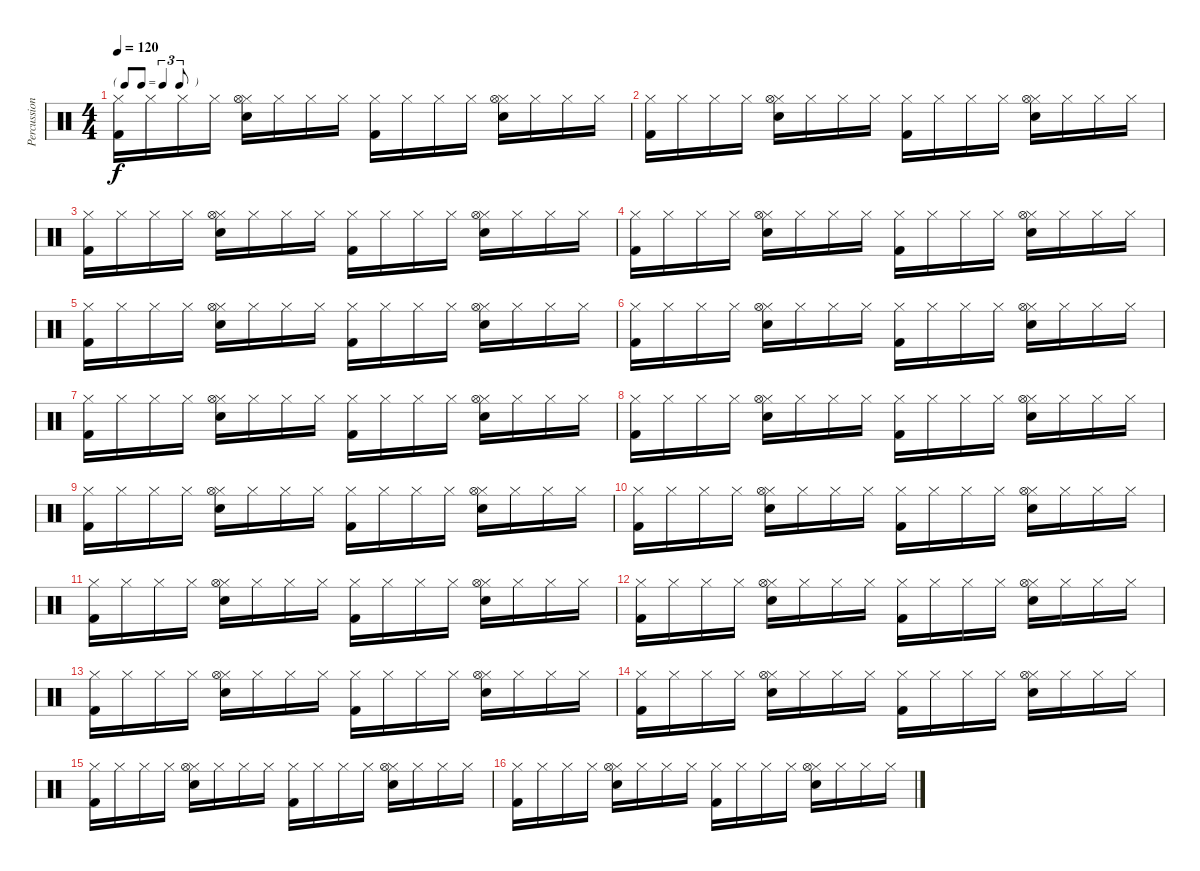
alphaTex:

\track ("Percussions" "Percussion") {instrument percussion}
\staff {score}
\articulation defaults
\ts (4 4)
\tf triplet8th
\tempo 120
\clef neutral
\ks c
("Hi-Hat (closed)" "Kick (hit) 2").16{dy f} "Hi-Hat (closed)".16 "Hi-Hat (closed)".16 "Hi-Hat (closed)".16 ("Snare (hit) 2" "Hi-Hat (closed)" "Hi-Hat (open)").16 "Hi-Hat (closed)".16 "Hi-Hat (closed)".16 "Hi-Hat (closed)".16 ("Hi-Hat (closed)" "Kick (hit) 2").16 "Hi-Hat (closed)".16 "Hi-Hat (closed)".16 "Hi-Hat (closed)".16 ("Snare (hit) 2" "Hi-Hat (closed)" "Hi-Hat (open)").16 "Hi-Hat (closed)".16 "Hi-Hat (closed)".16 "Hi-Hat (closed)".16 |
("Hi-Hat (closed)" "Kick (hit) 2").16 "Hi-Hat (closed)".16 "Hi-Hat (closed)".16 "Hi-Hat (closed)".16 ("Snare (hit) 2" "Hi-Hat (closed)" "Hi-Hat (open)").16 "Hi-Hat (closed)".16 "Hi-Hat (closed)".16 "Hi-Hat (closed)".16 ("Hi-Hat (closed)" "Kick (hit) 2").16 "Hi-Hat (closed)".16 "Hi-Hat (closed)".16 "Hi-Hat (closed)".16 ("Snare (hit) 2" "Hi-Hat (closed)" "Hi-Hat (open)").16 "Hi-Hat (closed)".16 "Hi-Hat (closed)".16 "Hi-Hat (closed)".16 |
("Hi-Hat (closed)" "Kick (hit) 2").16 "Hi-Hat (closed)".16 "Hi-Hat (closed)".16 "Hi-Hat (closed)".16 ("Snare (hit) 2" "Hi-Hat (closed)" "Hi-Hat (open)").16 "Hi-Hat (closed)".16 "Hi-Hat (closed)".16 "Hi-Hat (closed)".16 ("Hi-Hat (closed)" "Kick (hit) 2").16 "Hi-Hat (closed)".16 "Hi-Hat (closed)".16 "Hi-Hat (closed)".16 ("Snare (hit) 2" "Hi-Hat (closed)" "Hi-Hat (open)").16 "Hi-Hat (closed)".16 "Hi-Hat (closed)".16 "Hi-Hat (closed)".16 |
("Hi-Hat (closed)" "Kick (hit) 2").16 "Hi-Hat (closed)".16 "Hi-Hat (closed)".16 "Hi-Hat (closed)".16 ("Snare (hit) 2" "Hi-Hat (closed)" "Hi-Hat (open)").16 "Hi-Hat (closed)".16 "Hi-Hat (closed)".16 "Hi-Hat (closed)".16 ("Hi-Hat (closed)" "Kick (hit) 2").16 "Hi-Hat (closed)".16 "Hi-Hat (closed)".16 "Hi-Hat (closed)".16 ("Snare (hit) 2" "Hi-Hat (closed)" "Hi-Hat (open)").16 "Hi-Hat (closed)".16 "Hi-Hat (closed)".16 "Hi-Hat (closed)".16 |
("Hi-Hat (closed)" "Kick (hit) 2").16 "Hi-Hat (closed)".16 "Hi-Hat (closed)".16 "Hi-Hat (closed)".16 ("Snare (hit) 2" "Hi-Hat (closed)" "Hi-Hat (open)").16 "Hi-Hat (closed)".16 "Hi-Hat (closed)".16 "Hi-Hat (closed)".16 ("Hi-Hat (closed)" "Kick (hit) 2").16 "Hi-Hat (closed)".16 "Hi-Hat (closed)".16 "Hi-Hat (closed)".16 ("Snare (hit) 2" "Hi-Hat (closed)" "Hi-Hat (open)").16 "Hi-Hat (closed)".16 "Hi-Hat (closed)".16 "Hi-Hat (closed)".16 |
("Hi-Hat (closed)" "Kick (hit) 2").16 "Hi-Hat (closed)".16 "Hi-Hat (closed)".16 "Hi-Hat (closed)".16 ("Snare (hit) 2" "Hi-Hat (closed)" "Hi-Hat (open)").16 "Hi-Hat (closed)".16 "Hi-Hat (closed)".16 "Hi-Hat (closed)".16 ("Hi-Hat (closed)" "Kick (hit) 2").16 "Hi-Hat (closed)".16 "Hi-Hat (closed)".16 "Hi-Hat (closed)".16 ("Snare (hit) 2" "Hi-Hat (closed)" "Hi-Hat (open)").16 "Hi-Hat (closed)".16 "Hi-Hat (closed)".16 "Hi-Hat (closed)".16 |
("Hi-Hat (closed)" "Kick (hit) 2").16 "Hi-Hat (closed)".16 "Hi-Hat (closed)".16 "Hi-Hat (closed)".16 ("Snare (hit) 2" "Hi-Hat (closed)" "Hi-Hat (open)").16 "Hi-Hat (closed)".16 "Hi-Hat (closed)".16 "Hi-Hat (closed)".16 ("Hi-Hat (closed)" "Kick (hit) 2").16 "Hi-Hat (closed)".16 "Hi-Hat (closed)".16 "Hi-Hat (closed)".16 ("Snare (hit) 2" "Hi-Hat (closed)" "Hi-Hat (open)").16 "Hi-Hat (closed)".16 "Hi-Hat (closed)".16 "Hi-Hat (closed)".16 |
("Hi-Hat (closed)" "Kick (hit) 2").16 "Hi-Hat (closed)".16 "Hi-Hat (closed)".16 "Hi-Hat (closed)".16 ("Snare (hit) 2" "Hi-Hat (closed)" "Hi-Hat (open)").16 "Hi-Hat (closed)".16 "Hi-Hat (closed)".16 "Hi-Hat (closed)".16 ("Hi-Hat (closed)" "Kick (hit) 2").16 "Hi-Hat (closed)".16 "Hi-Hat (closed)".16 "Hi-Hat (closed)".16 ("Snare (hit) 2" "Hi-Hat (closed)" "Hi-Hat (open)").16 "Hi-Hat (closed)".16 "Hi-Hat (closed)".16 "Hi-Hat (closed)".16 |
("Hi-Hat (closed)" "Kick (hit) 2").16 "Hi-Hat (closed)".16 "Hi-Hat (closed)".16 "Hi-Hat (closed)".16 ("Snare (hit) 2" "Hi-Hat (closed)" "Hi-Hat (open)").16 "Hi-Hat (closed)".16 "Hi-Hat (closed)".16 "Hi-Hat (closed)".16 ("Hi-Hat (closed)" "Kick (hit) 2").16 "Hi-Hat (closed)".16 "Hi-Hat (closed)".16 "Hi-Hat (closed)".16 ("Snare (hit) 2" "Hi-Hat (closed)" "Hi-Hat (open)").16 "Hi-Hat (closed)".16 "Hi-Hat (closed)".16 "Hi-Hat (closed)".16 |
("Hi-Hat (closed)" "Kick (hit) 2").16 "Hi-Hat (closed)".16 "Hi-Hat (closed)".16 "Hi-Hat (closed)".16 ("Snare (hit) 2" "Hi-Hat (closed)" "Hi-Hat (open)").16 "Hi-Hat (closed)".16 "Hi-Hat (closed)".16 "Hi-Hat (closed)".16 ("Hi-Hat (closed)" "Kick (hit) 2").16 "Hi-Hat (closed)".16 "Hi-Hat (closed)".16 "Hi-Hat (closed)".16 ("Snare (hit) 2" "Hi-Hat (closed)" "Hi-Hat (open)").16 "Hi-Hat (closed)".16 "Hi-Hat (closed)".16 "Hi-Hat (closed)".16 |
("Hi-Hat (closed)" "Kick (hit) 2").16 "Hi-Hat (closed)".16 "Hi-Hat (closed)".16 "Hi-Hat (closed)".16 ("Snare (hit) 2" "Hi-Hat (closed)" "Hi-Hat (open)").16 "Hi-Hat (closed)".16 "Hi-Hat (closed)".16 "Hi-Hat (closed)".16 ("Hi-Hat (closed)" "Kick (hit) 2").16 "Hi-Hat (closed)".16 "Hi-Hat (closed)".16 "Hi-Hat (closed)".16 ("Snare (hit) 2" "Hi-Hat (closed)" "Hi-Hat (open)").16 "Hi-Hat (closed)".16 "Hi-Hat (closed)".16 "Hi-Hat (closed)".16 |
("Hi-Hat (closed)" "Kick (hit) 2").16 "Hi-Hat (closed)".16 "Hi-Hat (closed)".16 "Hi-Hat (closed)".16 ("Snare (hit) 2" "Hi-Hat (closed)" "Hi-Hat (open)").16 "Hi-Hat (closed)".16 "Hi-Hat (closed)".16 "Hi-Hat (closed)".16 ("Hi-Hat (closed)" "Kick (hit) 2").16 "Hi-Hat (closed)".16 "Hi-Hat (closed)".16 "Hi-Hat (closed)".16 ("Snare (hit) 2" "Hi-Hat (closed)" "Hi-Hat (open)").16 "Hi-Hat (closed)".16 "Hi-Hat (closed)".16 "Hi-Hat (closed)".16 |
("Hi-Hat (closed)" "Kick (hit) 2").16 "Hi-Hat (closed)".16 "Hi-Hat (closed)".16 "Hi-Hat (closed)".16 ("Snare (hit) 2" "Hi-Hat (closed)" "Hi-Hat (open)").16 "Hi-Hat (closed)".16 "Hi-Hat (closed)".16 "Hi-Hat (closed)".16 ("Hi-Hat (closed)" "Kick (hit) 2").16 "Hi-Hat (closed)".16 "Hi-Hat (closed)".16 "Hi-Hat (closed)".16 ("Snare (hit) 2" "Hi-Hat (closed)" "Hi-Hat (open)").16 "Hi-Hat (closed)".16 "Hi-Hat (closed)".16 "Hi-Hat (closed)".16 |
("Hi-Hat (closed)" "Kick (hit) 2").16 "Hi-Hat (closed)".16 "Hi-Hat (closed)".16 "Hi-Hat (closed)".16 ("Snare (hit) 2" "Hi-Hat (closed)" "Hi-Hat (open)").16 "Hi-Hat (closed)".16 "Hi-Hat (closed)".16 "Hi-Hat (closed)".16 ("Hi-Hat (closed)" "Kick (hit) 2").16 "Hi-Hat (closed)".16 "Hi-Hat (closed)".16 "Hi-Hat (closed)".16 ("Snare (hit) 2" "Hi-Hat (closed)" "Hi-Hat (open)").16 "Hi-Hat (closed)".16 "Hi-Hat (closed)".16 "Hi-Hat (closed)".16 |
("Hi-Hat (closed)" "Kick (hit) 2").16 "Hi-Hat (closed)".16 "Hi-Hat (closed)".16 "Hi-Hat (closed)".16 ("Snare (hit) 2" "Hi-Hat (closed)" "Hi-Hat (open)").16 "Hi-Hat (closed)".16 "Hi-Hat (closed)".16 "Hi-Hat (closed)".16 ("Hi-Hat (closed)" "Kick (hit) 2").16 "Hi-Hat (closed)".16 "Hi-Hat (closed)".16 "Hi-Hat (closed)".16 ("Snare (hit) 2" "Hi-Hat (closed)" "Hi-Hat (open)").16 "Hi-Hat (closed)".16 "Hi-Hat (closed)".16 "Hi-Hat (closed)".16 |
("Hi-Hat (closed)" "Kick (hit) 2").16 "Hi-Hat (closed)".16 "Hi-Hat (closed)".16 "Hi-Hat (closed)".16 ("Snare (hit) 2" "Hi-Hat (closed)" "Hi-Hat (open)").16 "Hi-Hat (closed)".16 "Hi-Hat (closed)".16 "Hi-Hat (closed)".16 ("Hi-Hat (closed)" "Kick (hit) 2").16 "Hi-Hat (closed)".16 "Hi-Hat (closed)".16 "Hi-Hat (closed)".16 ("Snare (hit) 2" "Hi-Hat (closed)" "Hi-Hat (open)").16 "Hi-Hat (closed)".16 "Hi-Hat (closed)".16 "Hi-Hat (closed)".16
